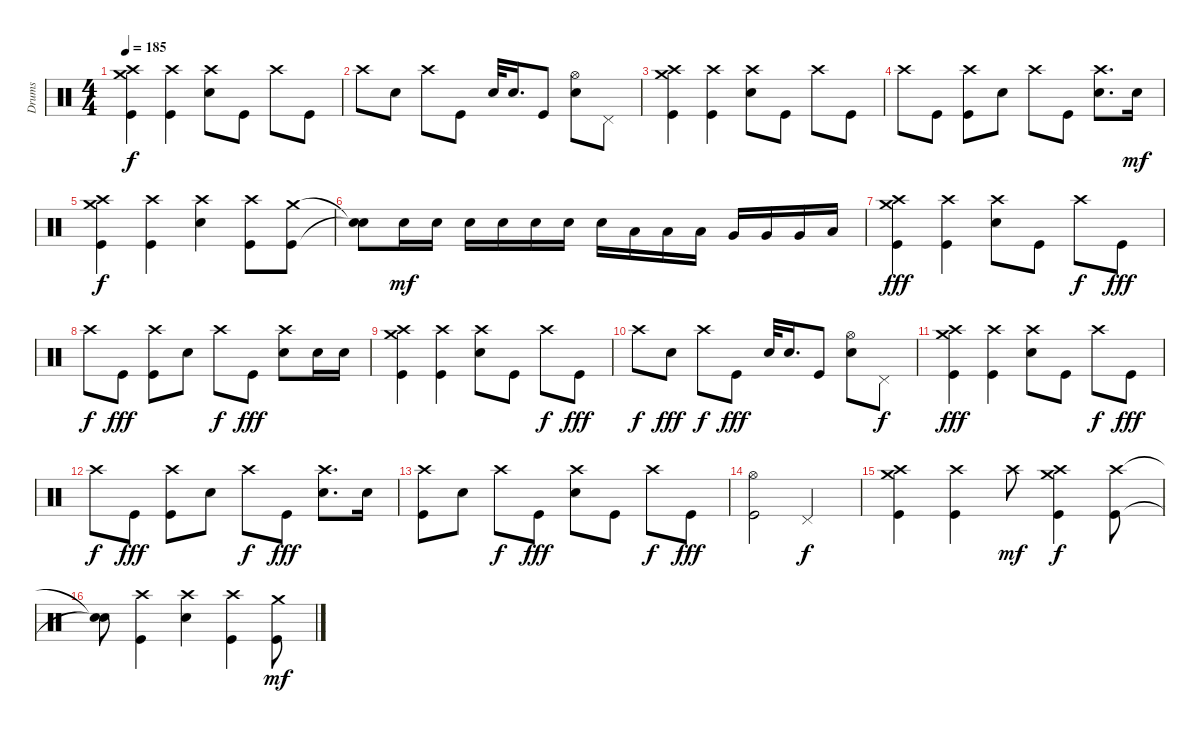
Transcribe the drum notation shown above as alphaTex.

\track ("Drums" "Drums") {instrument percussion}
\staff {score}
\articulation defaults
\ts (4 4)
\tempo 185
\clef neutral
\ks c
("Kick (hit)" "Crash high (hit)" "Crash medium (hit)").4{dy f} ("Kick (hit)" "Crash high (hit)").4 ("Electric Snare (hit)" "Crash high (hit)").8 "Kick (hit)".8 "Crash high (hit)".8 "Kick (hit)".8 |
"Crash high (hit)".8 "Electric Snare (hit)".8 "Crash high (hit)".8 "Kick (hit)".8 "Electric Snare (hit)".32 "Electric Snare (hit)".16{d} "Kick (hit)".8 ("Electric Snare (hit)" "Hi-Hat (open)").8 "Pedal Hi-Hat (hit)".8 |
("Kick (hit)" "Crash high (hit)" "Crash medium (hit)").4 ("Kick (hit)" "Crash high (hit)").4 ("Electric Snare (hit)" "Crash high (hit)").8 "Kick (hit)".8 "Crash high (hit)".8 "Kick (hit)".8 |
"Crash high (hit)".8 "Kick (hit)".8 ("Kick (hit)" "Crash high (hit)").8 "Electric Snare (hit)".8 "Crash high (hit)".8 "Kick (hit)".8 ("Electric Snare (hit)" "Crash high (hit)").8{d} "Electric Snare (hit)".16{dy mf} |
("Kick (hit)" "Crash high (hit)" "Crash medium (hit)").4{dy f} ("Kick (hit)" "Crash high (hit)").4 ("Electric Snare (hit)" "Crash high (hit)").4 ("Kick (hit)" "Crash high (hit)").8 ("Kick (hit)" "Crash medium (hit)").8 |
("Snare (hit)"{t} "Snare (hit)"{t}).8 "Electric Snare (hit)".16{dy mf} "Electric Snare (hit)".16 "Electric Snare (hit)".16 "Electric Snare (hit)".16 "Electric Snare (hit)".16 "Electric Snare (hit)".16 "Electric Snare (hit)".16 "Low Tom (hit)".16 "Low Tom (hit)".16 "Low Tom (hit)".16 "Very Low Tom (hit)".16 "Very Low Tom (hit)".16 "Very Low Tom (hit)".16 "Low Floor Tom (hit)".16 |
("Kick (hit)" "Crash high (hit)" "Crash medium (hit)").4{dy fff} ("Kick (hit)" "Crash high (hit)").4 ("Electric Snare (hit)" "Crash high (hit)").8 "Kick (hit)".8 "Crash high (hit)".8{dy f} "Kick (hit)".8{dy fff} |
"Crash high (hit)".8{dy f} "Kick (hit)".8{dy fff} ("Kick (hit)" "Crash high (hit)").8 "Electric Snare (hit)".8 "Crash high (hit)".8{dy f} "Kick (hit)".8{dy fff} ("Electric Snare (hit)" "Crash high (hit)").8 "Electric Snare (hit)".16 "Electric Snare (hit)".16 |
("Kick (hit)" "Crash high (hit)" "Crash medium (hit)").4 ("Kick (hit)" "Crash high (hit)").4 ("Electric Snare (hit)" "Crash high (hit)").8 "Kick (hit)".8 "Crash high (hit)".8{dy f} "Kick (hit)".8{dy fff} |
"Crash high (hit)".8{dy f} "Electric Snare (hit)".8{dy fff} "Crash high (hit)".8{dy f} "Kick (hit)".8{dy fff} "Electric Snare (hit)".32 "Electric Snare (hit)".16{d} "Kick (hit)".8 ("Electric Snare (hit)" "Hi-Hat (open)").8 "Pedal Hi-Hat (hit)".8{dy f} |
("Kick (hit)" "Crash high (hit)" "Crash medium (hit)").4{dy fff} ("Kick (hit)" "Crash high (hit)").4 ("Electric Snare (hit)" "Crash high (hit)").8 "Kick (hit)".8 "Crash high (hit)".8{dy f} "Kick (hit)".8{dy fff} |
"Crash high (hit)".8{dy f} "Kick (hit)".8{dy fff} ("Kick (hit)" "Crash high (hit)").8 "Electric Snare (hit)".8 "Crash high (hit)".8{dy f} "Kick (hit)".8{dy fff} ("Electric Snare (hit)" "Crash high (hit)").8{d} "Electric Snare (hit)".16 |
("Kick (hit)" "Crash high (hit)").8 "Electric Snare (hit)".8 "Crash high (hit)".8{dy f} "Kick (hit)".8{dy fff} ("Electric Snare (hit)" "Crash high (hit)").8 "Kick (hit)".8 "Crash high (hit)".8{dy f} "Kick (hit)".8{dy fff} |
("Kick (hit)" "Hi-Hat (open)").2 "Pedal Hi-Hat (hit)".2{dy f} |
("Kick (hit)" "Crash high (hit)" "Crash medium (hit)").4 ("Kick (hit)" "Crash high (hit)").4 "Crash high (hit)".8{dy mf} ("Kick (hit)" "Crash high (hit)" "Crash medium (hit)").4{dy f} ("Kick (hit)" "Crash high (hit)").8 |
("Snare (hit)"{t} "Snare (hit)"{t}).8 ("Kick (hit)" "Crash high (hit)").4 ("Electric Snare (hit)" "Crash high (hit)").4 ("Kick (hit)" "Crash high (hit)").4 ("Kick (hit)" "Crash medium (hit)").8{dy mf}
